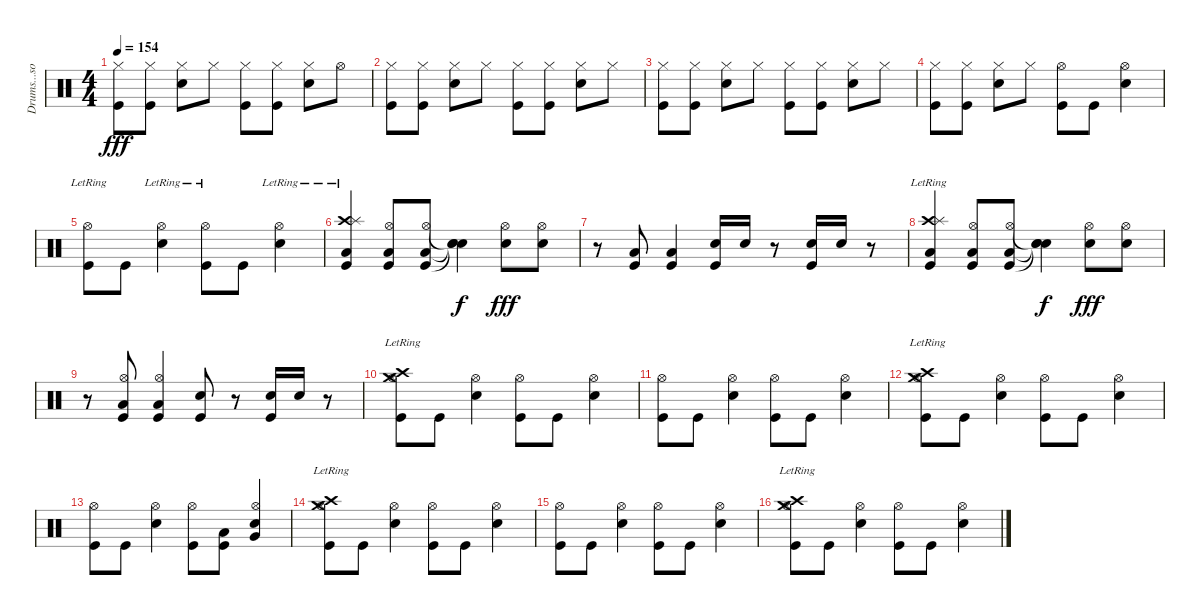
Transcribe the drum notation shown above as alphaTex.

\track ("Drums...song tabbed by ae" "Drums...so") {instrument percussion}
\staff {score}
\articulation defaults
\ts (4 4)
\tempo 154
\clef neutral
\ks c
("Hi-Hat (closed)" "Kick (hit)").8{dy fff} ("Hi-Hat (closed)" "Kick (hit)").8 ("Hi-Hat (closed)" "Snare (hit) 2").8 "Hi-Hat (closed)".8 ("Hi-Hat (closed)" "Kick (hit)").8 ("Hi-Hat (closed)" "Kick (hit)").8 ("Hi-Hat (closed)" "Snare (hit) 2").8 "Hi-Hat (open)".8 |
("Hi-Hat (closed)" "Kick (hit)").8 ("Hi-Hat (closed)" "Kick (hit)").8 ("Hi-Hat (closed)" "Snare (hit) 2").8 "Hi-Hat (closed)".8 ("Hi-Hat (closed)" "Kick (hit)").8 ("Hi-Hat (closed)" "Kick (hit)").8 ("Hi-Hat (closed)" "Snare (hit) 2").8 "Hi-Hat (closed)".8 |
("Hi-Hat (closed)" "Kick (hit)").8 ("Hi-Hat (closed)" "Kick (hit)").8 ("Hi-Hat (closed)" "Snare (hit) 2").8 "Hi-Hat (closed)".8 ("Hi-Hat (closed)" "Kick (hit)").8 ("Hi-Hat (closed)" "Kick (hit)").8 ("Hi-Hat (closed)" "Snare (hit) 2").8 "Hi-Hat (closed)".8 |
("Hi-Hat (closed)" "Kick (hit)").8 ("Hi-Hat (closed)" "Kick (hit)").8 ("Hi-Hat (closed)" "Snare (hit) 2").8 "Hi-Hat (closed)".8 ("Hi-Hat (open)" "Kick (hit)").8 "Kick (hit)".8 ("Hi-Hat (open)" "Snare (hit) 2").4 |
("Hi-Hat (open)"{lr} "Kick (hit)").8 "Kick (hit)".8 ("Hi-Hat (open)"{lr} "Snare (hit) 2").4 ("Hi-Hat (open)"{lr} "Kick (hit)").8 "Kick (hit)".8 ("Hi-Hat (open)"{lr} "Snare (hit) 2").4 |
("Crash high (hit)"{lr} "Splash (hit)"{lr} "Low Tom (hit)"{lr} "Kick (hit)"{lr}).4 ("Hi-Hat (open)" "Low Tom (hit)" "Kick (hit)").8 ("Hi-Hat (open)" "Low Tom (hit)" "Kick (hit)").8 ("Snare (hit)"{t} "Snare (hit)"{t} "Snare (hit)"{t}).4{dy f} ("Hi-Hat (open)" "Snare (hit) 2").8{dy fff} ("Hi-Hat (open)" "Snare (hit) 2").8 |
r.8 ("Low Tom (hit)" "Kick (hit)").8 ("Low Tom (hit)" "Kick (hit)").4 ("Snare (hit) 2" "Kick (hit)").16 "Snare (hit) 2".16 r.8 ("Snare (hit) 2" "Kick (hit)").16 "Snare (hit) 2".16 r.8 |
("Crash high (hit)"{lr} "Splash (hit)"{lr} "Low Tom (hit)"{lr} "Kick (hit)"{lr}).4 ("Hi-Hat (open)" "Low Tom (hit)" "Kick (hit)").8 ("Hi-Hat (open)" "Low Tom (hit)" "Kick (hit)").8 ("Snare (hit)"{t} "Snare (hit)"{t} "Snare (hit)"{t}).4{dy f} ("Hi-Hat (open)" "Snare (hit) 2").8{dy fff} ("Hi-Hat (open)" "Snare (hit) 2").8 |
r.8 ("Hi-Hat (open)" "Low Tom (hit)" "Kick (hit)").8 ("Hi-Hat (open)" "Low Tom (hit)" "Kick (hit)").4 ("Snare (hit) 2" "Kick (hit)").8 r.8 ("Snare (hit) 2" "Kick (hit)").16 "Snare (hit) 2".16 r.8 |
("Crash high (hit)"{lr} "Hi-Hat (open)" "Crash medium (hit)"{lr} "Kick (hit)").8 "Kick (hit)".8 ("Hi-Hat (open)" "Snare (hit) 2").4 ("Hi-Hat (open)" "Kick (hit)").8 "Kick (hit)".8 ("Hi-Hat (open)" "Snare (hit) 2").4 |
("Hi-Hat (open)" "Kick (hit)").8 "Kick (hit)".8 ("Hi-Hat (open)" "Snare (hit) 2").4 ("Hi-Hat (open)" "Kick (hit)").8 "Kick (hit)".8 ("Hi-Hat (open)" "Snare (hit) 2").4 |
("Crash high (hit)"{lr} "Hi-Hat (open)" "Crash medium (hit)"{lr} "Kick (hit)").8 "Kick (hit)".8 ("Hi-Hat (open)" "Snare (hit) 2").4 ("Hi-Hat (open)" "Kick (hit)").8 "Kick (hit)".8 ("Hi-Hat (open)" "Snare (hit) 2").4 |
("Hi-Hat (open)" "Kick (hit)").8 "Kick (hit)".8 ("Hi-Hat (open)" "Snare (hit) 2").4 ("Hi-Hat (open)" "Kick (hit)").8 ("Low Tom (hit)" "Kick (hit)").8 ("Hi-Hat (open)" "Very Low Tom (hit)" "Snare (hit) 2").4 |
("Crash high (hit)"{lr} "Hi-Hat (open)" "Crash medium (hit)"{lr} "Kick (hit)").8 "Kick (hit)".8 ("Hi-Hat (open)" "Snare (hit) 2").4 ("Hi-Hat (open)" "Kick (hit)").8 "Kick (hit)".8 ("Hi-Hat (open)" "Snare (hit) 2").4 |
("Hi-Hat (open)" "Kick (hit)").8 "Kick (hit)".8 ("Hi-Hat (open)" "Snare (hit) 2").4 ("Hi-Hat (open)" "Kick (hit)").8 "Kick (hit)".8 ("Hi-Hat (open)" "Snare (hit) 2").4 |
("Crash high (hit)"{lr} "Hi-Hat (open)" "Crash medium (hit)"{lr} "Kick (hit)").8 "Kick (hit)".8 ("Hi-Hat (open)" "Snare (hit) 2").4 ("Hi-Hat (open)" "Kick (hit)").8 "Kick (hit)".8 ("Hi-Hat (open)" "Snare (hit) 2").4
